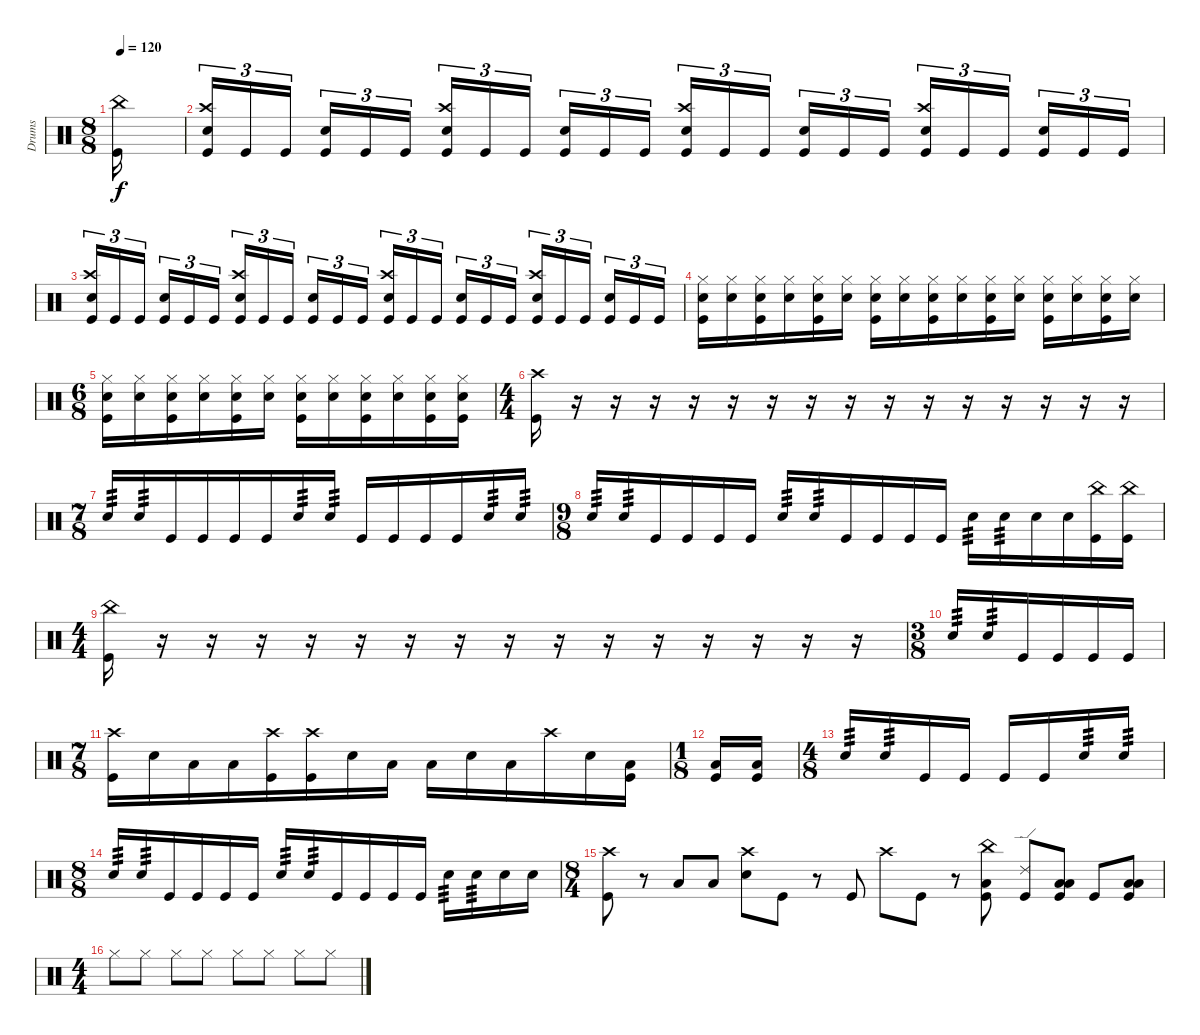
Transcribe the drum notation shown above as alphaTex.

\track ("Drums" "Drums") {instrument percussion}
\staff {score}
\articulation defaults
\ts (8 8)
\tempo 120
\clef neutral
\ks c
("China (hit)" "Kick (hit)").16{dy f} |
("Crash high (hit)" "Electric Snare (hit)" "Kick (hit)").16{tu (3 2)} "Kick (hit)".16{tu (3 2)} "Kick (hit)".16{tu (3 2)} ("Electric Snare (hit)" "Kick (hit)").16{tu (3 2)} "Kick (hit)".16{tu (3 2)} "Kick (hit)".16{tu (3 2)} ("Crash high (hit)" "Electric Snare (hit)" "Kick (hit)").16{tu (3 2)} "Kick (hit)".16{tu (3 2)} "Kick (hit)".16{tu (3 2)} ("Electric Snare (hit)" "Kick (hit)").16{tu (3 2)} "Kick (hit)".16{tu (3 2)} "Kick (hit)".16{tu (3 2)} ("Crash high (hit)" "Electric Snare (hit)" "Kick (hit)").16{tu (3 2)} "Kick (hit)".16{tu (3 2)} "Kick (hit)".16{tu (3 2)} ("Electric Snare (hit)" "Kick (hit)").16{tu (3 2)} "Kick (hit)".16{tu (3 2)} "Kick (hit)".16{tu (3 2)} ("Crash high (hit)" "Electric Snare (hit)" "Kick (hit)").16{tu (3 2)} "Kick (hit)".16{tu (3 2)} "Kick (hit)".16{tu (3 2)} ("Electric Snare (hit)" "Kick (hit)").16{tu (3 2)} "Kick (hit)".16{tu (3 2)} "Kick (hit)".16{tu (3 2)} |
("Crash high (hit)" "Electric Snare (hit)" "Kick (hit)").16{tu (3 2)} "Kick (hit)".16{tu (3 2)} "Kick (hit)".16{tu (3 2)} ("Electric Snare (hit)" "Kick (hit)").16{tu (3 2)} "Kick (hit)".16{tu (3 2)} "Kick (hit)".16{tu (3 2)} ("Crash high (hit)" "Electric Snare (hit)" "Kick (hit)").16{tu (3 2)} "Kick (hit)".16{tu (3 2)} "Kick (hit)".16{tu (3 2)} ("Electric Snare (hit)" "Kick (hit)").16{tu (3 2)} "Kick (hit)".16{tu (3 2)} "Kick (hit)".16{tu (3 2)} ("Crash high (hit)" "Electric Snare (hit)" "Kick (hit)").16{tu (3 2)} "Kick (hit)".16{tu (3 2)} "Kick (hit)".16{tu (3 2)} ("Electric Snare (hit)" "Kick (hit)").16{tu (3 2)} "Kick (hit)".16{tu (3 2)} "Kick (hit)".16{tu (3 2)} ("Crash high (hit)" "Electric Snare (hit)" "Kick (hit)").16{tu (3 2)} "Kick (hit)".16{tu (3 2)} "Kick (hit)".16{tu (3 2)} ("Electric Snare (hit)" "Kick (hit)").16{tu (3 2)} "Kick (hit)".16{tu (3 2)} "Kick (hit)".16{tu (3 2)} |
("Hi-Hat (closed)" "Electric Snare (hit)" "Kick (hit)").16 ("Hi-Hat (closed)" "Electric Snare (hit)").16 ("Hi-Hat (closed)" "Electric Snare (hit)" "Kick (hit)").16 ("Hi-Hat (closed)" "Electric Snare (hit)").16 ("Hi-Hat (closed)" "Electric Snare (hit)" "Kick (hit)").16 ("Hi-Hat (closed)" "Electric Snare (hit)").16 ("Hi-Hat (closed)" "Electric Snare (hit)" "Kick (hit)").16 ("Hi-Hat (closed)" "Electric Snare (hit)").16 ("Hi-Hat (closed)" "Electric Snare (hit)" "Kick (hit)").16 ("Hi-Hat (closed)" "Electric Snare (hit)").16 ("Hi-Hat (closed)" "Electric Snare (hit)" "Kick (hit)").16 ("Hi-Hat (closed)" "Electric Snare (hit)").16 ("Hi-Hat (closed)" "Electric Snare (hit)" "Kick (hit)").16 ("Hi-Hat (closed)" "Electric Snare (hit)").16 ("Hi-Hat (closed)" "Electric Snare (hit)" "Kick (hit)").16 ("Hi-Hat (closed)" "Electric Snare (hit)").16 |
\ts (6 8)
("Hi-Hat (closed)" "Electric Snare (hit)" "Kick (hit)").16 ("Hi-Hat (closed)" "Electric Snare (hit)").16 ("Hi-Hat (closed)" "Electric Snare (hit)" "Kick (hit)").16 ("Hi-Hat (closed)" "Electric Snare (hit)").16 ("Hi-Hat (closed)" "Electric Snare (hit)" "Kick (hit)").16 ("Hi-Hat (closed)" "Electric Snare (hit)").16 ("Hi-Hat (closed)" "Electric Snare (hit)" "Kick (hit)").16 ("Hi-Hat (closed)" "Electric Snare (hit)").16 ("Hi-Hat (closed)" "Electric Snare (hit)" "Kick (hit)").16 ("Hi-Hat (closed)" "Electric Snare (hit)").16 ("Hi-Hat (closed)" "Electric Snare (hit)" "Kick (hit)").16 ("Hi-Hat (closed)" "Electric Snare (hit)" "Kick (hit)").16 |
\ts (4 4)
("Crash high (hit)" "Kick (hit)").16 r.16 r.16 r.16 r.16 r.16 r.16 r.16 r.16 r.16 r.16 r.16 r.16 r.16 r.16 r.16 |
\ts (7 8)
"Electric Snare (hit)".16{tp 3} "Electric Snare (hit)".16{tp 3} "Kick (hit)".16 "Kick (hit)".16 "Kick (hit)".16 "Kick (hit)".16 "Electric Snare (hit)".16{tp 3} "Electric Snare (hit)".16{tp 3} "Kick (hit)".16 "Kick (hit)".16 "Kick (hit)".16 "Kick (hit)".16 "Electric Snare (hit)".16{tp 3} "Electric Snare (hit)".16{tp 3} |
\ts (9 8)
"Electric Snare (hit)".16{tp 3} "Electric Snare (hit)".16{tp 3} "Kick (hit)".16 "Kick (hit)".16 "Kick (hit)".16 "Kick (hit)".16 "Electric Snare (hit)".16{tp 3} "Electric Snare (hit)".16{tp 3} "Kick (hit)".16 "Kick (hit)".16 "Kick (hit)".16 "Kick (hit)".16 "Electric Snare (hit)".16{tp 3} "Electric Snare (hit)".16{tp 3} "Electric Snare (hit)".16 "Electric Snare (hit)".16 ("China (hit)" "Kick (hit)").16 ("China (hit)" "Kick (hit)").16 |
\ts (4 4)
("China (hit)" "Kick (hit)").16 r.16 r.16 r.16 r.16 r.16 r.16 r.16 r.16 r.16 r.16 r.16 r.16 r.16 r.16 r.16 |
\ts (3 8)
"Electric Snare (hit)".16{tp 3} "Electric Snare (hit)".16{tp 3} "Kick (hit)".16 "Kick (hit)".16 "Kick (hit)".16 "Kick (hit)".16 |
\ts (7 8)
("Crash high (hit)" "Kick (hit)").16 "Electric Snare (hit)".16 "Low Floor Tom (hit)".16 "Low Tom (hit)".16 ("Crash high (hit)" "Kick (hit)").16 ("Crash high (hit)" "Kick (hit)").16 "Electric Snare (hit)".16 "Low Floor Tom (hit)".16 "Low Tom (hit)".16 "Electric Snare (hit)".16 "Low Tom (hit)".16 "Crash high (hit)".16 "Electric Snare (hit)".16 ("Low Floor Tom (hit)" "Kick (hit)").16 |
\ts (1 8)
("Low Floor Tom (hit)" "Kick (hit)").16 ("Low Floor Tom (hit)" "Kick (hit)").16 |
\ts (4 8)
"Electric Snare (hit)".16{tp 3} "Electric Snare (hit)".16{tp 3} "Kick (hit)".16 "Kick (hit)".16 "Kick (hit)".16 "Kick (hit)".16 "Electric Snare (hit)".16{tp 3} "Electric Snare (hit)".16{tp 3} |
\ts (8 8)
"Electric Snare (hit)".16{tp 3} "Electric Snare (hit)".16{tp 3} "Kick (hit)".16 "Kick (hit)".16 "Kick (hit)".16 "Kick (hit)".16 "Electric Snare (hit)".16{tp 3} "Electric Snare (hit)".16{tp 3} "Kick (hit)".16 "Kick (hit)".16 "Kick (hit)".16 "Kick (hit)".16 "Electric Snare (hit)".16{tp 3} "Electric Snare (hit)".16{tp 3} "Electric Snare (hit)".16 "Electric Snare (hit)".16 |
\ts (8 4)
("Crash high (hit)" "Kick (hit)").8 r.8 "Low Tom (hit)".8 "Low Floor Tom (hit)".8 ("Crash high (hit)" "Electric Snare (hit)").8 "Kick (hit)".8 r.8 "Kick (hit)".8 "Crash high (hit)".8 "Kick (hit)".8 r.8 ("China (hit)" "Low Tom (hit)" "Kick (hit)").8 ("Ride (edge) 2" "Kick (hit)").8 ("Low Tom (hit)" "Low Floor Tom (hit)" "Kick (hit)").8 "Kick (hit)".8 ("Low Tom (hit)" "Low Floor Tom (hit)" "Kick (hit)").8 |
\ts (4 4)
"Hi-Hat (closed)".8 "Hi-Hat (closed)".8 "Hi-Hat (closed)".8 "Hi-Hat (closed)".8 "Hi-Hat (closed)".8 "Hi-Hat (closed)".8 "Hi-Hat (closed)".8 "Hi-Hat (closed)".8
